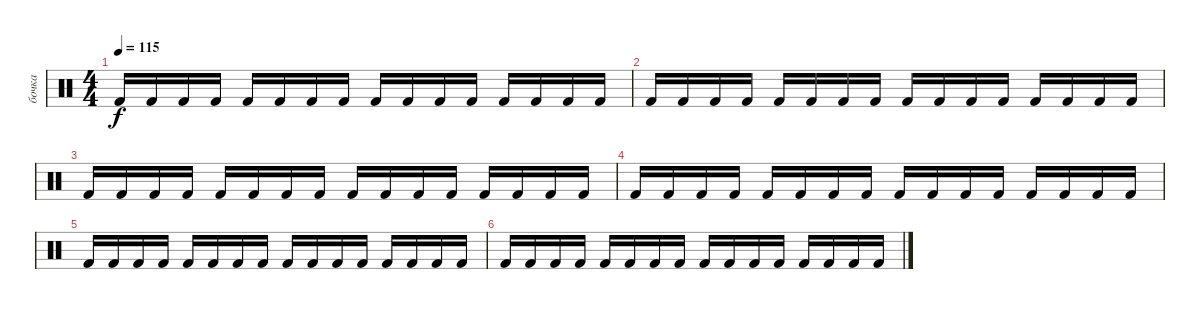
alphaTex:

\track ("бочка" "бочка") {mute instrument percussion}
\staff {score}
\articulation defaults
\ts (4 4)
\tempo 115
\clef neutral
\ks c "Kick (hit) 2".16{dy f} "Kick (hit) 2".16 "Kick (hit) 2".16 "Kick (hit) 2".16 "Kick (hit) 2".16 "Kick (hit) 2".16 "Kick (hit) 2".16 "Kick (hit) 2".16 "Kick (hit) 2".16 "Kick (hit) 2".16 "Kick (hit) 2".16 "Kick (hit) 2".16 "Kick (hit) 2".16 "Kick (hit) 2".16 "Kick (hit) 2".16 "Kick (hit) 2".16
|
"Kick (hit) 2".16 "Kick (hit) 2".16 "Kick (hit) 2".16 "Kick (hit) 2".16 "Kick (hit) 2".16 "Kick (hit) 2".16 "Kick (hit) 2".16 "Kick (hit) 2".16 "Kick (hit) 2".16 "Kick (hit) 2".16 "Kick (hit) 2".16 "Kick (hit) 2".16 "Kick (hit) 2".16 "Kick (hit) 2".16 "Kick (hit) 2".16 "Kick (hit) 2".16 |
"Kick (hit) 2".16 "Kick (hit) 2".16 "Kick (hit) 2".16 "Kick (hit) 2".16 "Kick (hit) 2".16 "Kick (hit) 2".16 "Kick (hit) 2".16 "Kick (hit) 2".16 "Kick (hit) 2".16 "Kick (hit) 2".16 "Kick (hit) 2".16 "Kick (hit) 2".16 "Kick (hit) 2".16 "Kick (hit) 2".16 "Kick (hit) 2".16 "Kick (hit) 2".16 |
"Kick (hit) 2".16 "Kick (hit) 2".16 "Kick (hit) 2".16 "Kick (hit) 2".16 "Kick (hit) 2".16 "Kick (hit) 2".16 "Kick (hit) 2".16 "Kick (hit) 2".16 "Kick (hit) 2".16 "Kick (hit) 2".16 "Kick (hit) 2".16 "Kick (hit) 2".16 "Kick (hit) 2".16 "Kick (hit) 2".16 "Kick (hit) 2".16 "Kick (hit) 2".16 |
"Kick (hit) 2".16 "Kick (hit) 2".16 "Kick (hit) 2".16 "Kick (hit) 2".16 "Kick (hit) 2".16 "Kick (hit) 2".16 "Kick (hit) 2".16 "Kick (hit) 2".16 "Kick (hit) 2".16 "Kick (hit) 2".16 "Kick (hit) 2".16 "Kick (hit) 2".16 "Kick (hit) 2".16 "Kick (hit) 2".16 "Kick (hit) 2".16 "Kick (hit) 2".16 |
"Kick (hit) 2".16 "Kick (hit) 2".16 "Kick (hit) 2".16 "Kick (hit) 2".16 "Kick (hit) 2".16 "Kick (hit) 2".16 "Kick (hit) 2".16 "Kick (hit) 2".16 "Kick (hit) 2".16 "Kick (hit) 2".16 "Kick (hit) 2".16 "Kick (hit) 2".16 "Kick (hit) 2".16 "Kick (hit) 2".16 "Kick (hit) 2".16 "Kick (hit) 2".16
